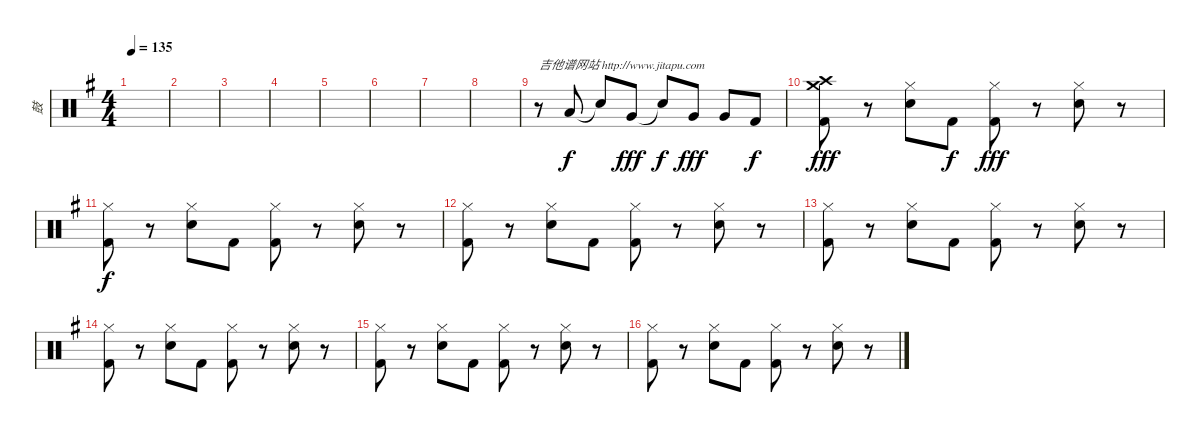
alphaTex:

\track ("鼓" "鼓") {instrument percussion}
\staff {score}
\articulation defaults
\ts (4 4)
\tempo 135
\clef neutral
\ks g
|
|
|
|
|
|
|
|
r.8{txt "吉他谱网站 http://www.jitapu.com"} "Low Tom (hit)".8 "Snare (hit)"{t}.8{dy f} "Very Low Tom (hit)".8{dy fff} "Snare (hit)"{t}.8{dy f} "Very Low Tom (hit)".8{dy fff} "Very Low Tom (hit)".8 "Kick (hit) 2".8{dy f} |
("Kick (hit) 2" "Crash medium (hit)" "Crash high (hit)").8{dy fff} r.8 ("Snare (hit) 2" "Hi-Hat (closed)").8 "Kick (hit) 2".8{dy f} ("Kick (hit) 2" "Hi-Hat (closed)").8{dy fff} r.8 ("Snare (hit) 2" "Hi-Hat (closed)").8 r.8 |
("Kick (hit) 2" "Hi-Hat (closed)").8{dy f} r.8 ("Snare (hit) 2" "Hi-Hat (closed)").8 "Kick (hit) 2".8 ("Kick (hit) 2" "Hi-Hat (closed)").8 r.8 ("Snare (hit) 2" "Hi-Hat (closed)").8 r.8 |
("Kick (hit) 2" "Hi-Hat (closed)").8 r.8 ("Snare (hit) 2" "Hi-Hat (closed)").8 "Kick (hit) 2".8 ("Kick (hit) 2" "Hi-Hat (closed)").8 r.8 ("Snare (hit) 2" "Hi-Hat (closed)").8 r.8 |
("Kick (hit) 2" "Hi-Hat (closed)").8 r.8 ("Snare (hit) 2" "Hi-Hat (closed)").8 "Kick (hit) 2".8 ("Kick (hit) 2" "Hi-Hat (closed)").8 r.8 ("Snare (hit) 2" "Hi-Hat (closed)").8 r.8 |
("Kick (hit) 2" "Hi-Hat (closed)").8 r.8 ("Snare (hit) 2" "Hi-Hat (closed)").8 "Kick (hit) 2".8 ("Kick (hit) 2" "Hi-Hat (closed)").8 r.8 ("Snare (hit) 2" "Hi-Hat (closed)").8 r.8 |
("Kick (hit) 2" "Hi-Hat (closed)").8 r.8 ("Snare (hit) 2" "Hi-Hat (closed)").8 "Kick (hit) 2".8 ("Kick (hit) 2" "Hi-Hat (closed)").8 r.8 ("Snare (hit) 2" "Hi-Hat (closed)").8 r.8 |
("Kick (hit) 2" "Hi-Hat (closed)").8 r.8 ("Snare (hit) 2" "Hi-Hat (closed)").8 "Kick (hit) 2".8 ("Kick (hit) 2" "Hi-Hat (closed)").8 r.8 ("Snare (hit) 2" "Hi-Hat (closed)").8 r.8
